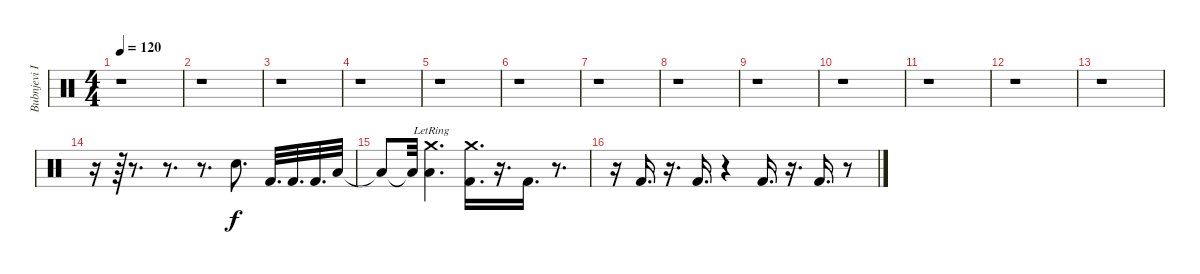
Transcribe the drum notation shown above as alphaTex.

\track ("Bubnjevi Ipe Ivandic" "Bubnjevi I") {instrument percussion}
\staff {score}
\articulation defaults
\ts (4 4)
\tempo 120
\clef neutral
\ks c
r.1{dy f} |
r.1 |
r.1 |
r.1 |
r.1 |
r.1 |
r.1 |
r.1 |
r.1 |
r.1 |
r.1 |
r.1 |
r.1 |
r.16 r.64 r.8{d} r.8{d} r.8{d} "Snare (hit) 2".8{d} "Kick (hit) 2".32{d} "Kick (hit) 2".32{d} "Kick (hit) 2".32{d} "Low Tom (hit)".32 |
"Low Tom (hit)"{t}.8 "Low Tom (hit)"{t}.32 ("Low Tom (hit)" "Crash medium (hit)"{lr}).4{d} ("Kick (hit) 2" "Crash medium (hit)").16{d} r.16{d} "Kick (hit) 2".16{d} r.8{d} |
r.16 "Kick (hit) 2".16{d} r.16{d} "Kick (hit) 2".16{d} r.4 "Kick (hit) 2".16{d} r.16{d} "Kick (hit) 2".16{d} r.8
